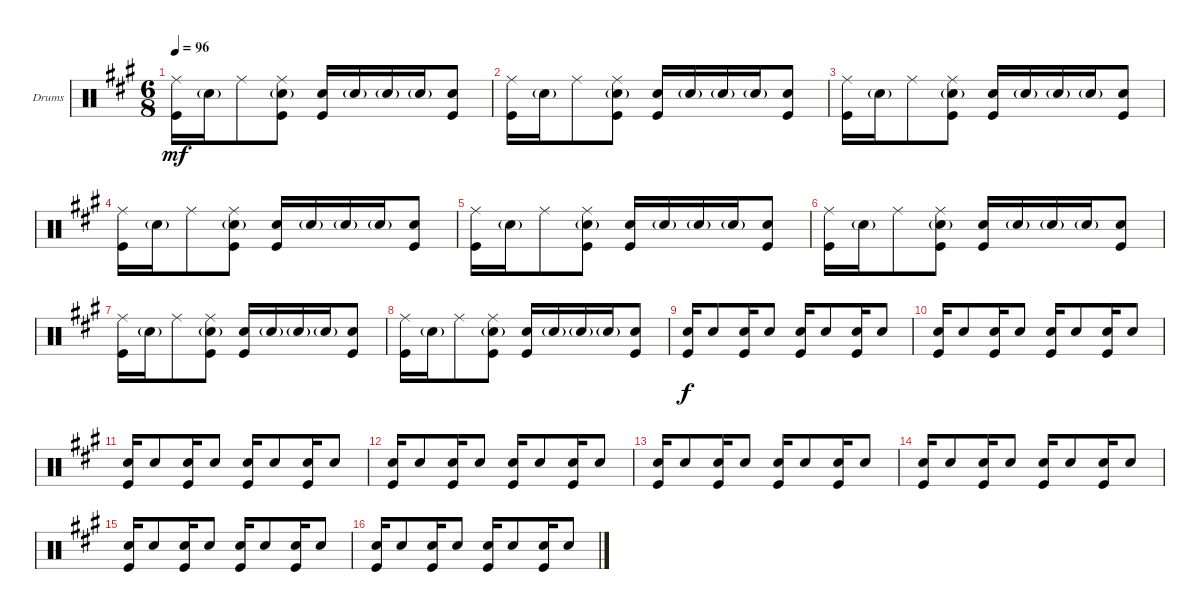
\bracketExtendMode groupsimilarinstruments
\firstSystemTrackNameOrientation horizontal
\otherSystemsTrackNameOrientation horizontal
\track ("Drumkit" "Drums") {instrument percussion}
\staff {score}
\articulation defaults
\ts (6 8)
\tempo 96
\clef neutral
\scale
0.333333
\ks a
("Ride (middle)" "Kick (hit)").16{dy mf} "Snare (hit) 2"{g}.16 "Ride (middle)".8 ("Snare (hit) 2"{g} "Ride (middle)" "Kick (hit)").8 ("Snare (hit) 2" "Kick (hit)").16 "Snare (hit) 2"{g}.16 "Snare (hit) 2"{g}.16 "Snare (hit) 2"{g}.16 ("Snare (hit) 2" "Kick (hit)").8 |
\scale
0.333333 ("Ride (middle)" "Kick (hit)").16 "Snare (hit) 2"{g}.16 "Ride (middle)".8 ("Snare (hit) 2"{g} "Ride (middle)" "Kick (hit)").8 ("Snare (hit) 2" "Kick (hit)").16 "Snare (hit) 2"{g}.16 "Snare (hit) 2"{g}.16 "Snare (hit) 2"{g}.16 ("Snare (hit) 2" "Kick (hit)").8 |
\scale
0.333333 ("Ride (middle)" "Kick (hit)").16 "Snare (hit) 2"{g}.16 "Ride (middle)".8 ("Snare (hit) 2"{g} "Ride (middle)" "Kick (hit)").8 ("Snare (hit) 2" "Kick (hit)").16 "Snare (hit) 2"{g}.16 "Snare (hit) 2"{g}.16 "Snare (hit) 2"{g}.16 ("Snare (hit) 2" "Kick (hit)").8 |
\scale
0.333333 ("Ride (middle)" "Kick (hit)").16 "Snare (hit) 2"{g}.16 "Ride (middle)".8 ("Snare (hit) 2"{g} "Ride (middle)" "Kick (hit)").8 ("Snare (hit) 2" "Kick (hit)").16 "Snare (hit) 2"{g}.16 "Snare (hit) 2"{g}.16 "Snare (hit) 2"{g}.16 ("Snare (hit) 2" "Kick (hit)").8 |
\scale
0.333333 ("Ride (middle)" "Kick (hit)").16 "Snare (hit) 2"{g}.16 "Ride (middle)".8 ("Snare (hit) 2"{g} "Ride (middle)" "Kick (hit)").8 ("Snare (hit) 2" "Kick (hit)").16 "Snare (hit) 2"{g}.16 "Snare (hit) 2"{g}.16 "Snare (hit) 2"{g}.16 ("Snare (hit) 2" "Kick (hit)").8 |
\scale
0.333333 ("Ride (middle)" "Kick (hit)").16 "Snare (hit) 2"{g}.16 "Ride (middle)".8 ("Snare (hit) 2"{g} "Ride (middle)" "Kick (hit)").8 ("Snare (hit) 2" "Kick (hit)").16 "Snare (hit) 2"{g}.16 "Snare (hit) 2"{g}.16 "Snare (hit) 2"{g}.16 ("Snare (hit) 2" "Kick (hit)").8 |
\scale
0.333333 ("Ride (middle)" "Kick (hit)").16 "Snare (hit) 2"{g}.16 "Ride (middle)".8 ("Snare (hit) 2"{g} "Ride (middle)" "Kick (hit)").8 ("Snare (hit) 2" "Kick (hit)").16 "Snare (hit) 2"{g}.16 "Snare (hit) 2"{g}.16 "Snare (hit) 2"{g}.16 ("Snare (hit) 2" "Kick (hit)").8 |
\scale
0.333333 ("Ride (middle)" "Kick (hit)").16 "Snare (hit) 2"{g}.16 "Ride (middle)".8 ("Snare (hit) 2"{g} "Ride (middle)" "Kick (hit)").8 ("Snare (hit) 2" "Kick (hit)").16 "Snare (hit) 2"{g}.16 "Snare (hit) 2"{g}.16 "Snare (hit) 2"{g}.16 ("Snare (hit) 2" "Kick (hit)").8 |
\scale
0.333333 ("Snare (hit) 2" "Kick (hit)").16{dy f} "Snare (hit) 2".8 ("Snare (hit) 2" "Kick (hit)").16 "Snare (hit) 2".8 ("Snare (hit) 2" "Kick (hit)").16 "Snare (hit) 2".8 ("Snare (hit) 2" "Kick (hit)").16 "Snare (hit) 2".8 |
\scale
0.333333 ("Snare (hit) 2" "Kick (hit)").16 "Snare (hit) 2".8 ("Snare (hit) 2" "Kick (hit)").16 "Snare (hit) 2".8 ("Snare (hit) 2" "Kick (hit)").16 "Snare (hit) 2".8 ("Snare (hit) 2" "Kick (hit)").16 "Snare (hit) 2".8 |
\scale
0.333333 ("Snare (hit) 2" "Kick (hit)").16 "Snare (hit) 2".8 ("Snare (hit) 2" "Kick (hit)").16 "Snare (hit) 2".8 ("Snare (hit) 2" "Kick (hit)").16 "Snare (hit) 2".8 ("Snare (hit) 2" "Kick (hit)").16 "Snare (hit) 2".8 |
\scale
0.333333 ("Snare (hit) 2" "Kick (hit)").16 "Snare (hit) 2".8 ("Snare (hit) 2" "Kick (hit)").16 "Snare (hit) 2".8 ("Snare (hit) 2" "Kick (hit)").16 "Snare (hit) 2".8 ("Snare (hit) 2" "Kick (hit)").16 "Snare (hit) 2".8 |
\scale
0.333333 ("Snare (hit) 2" "Kick (hit)").16 "Snare (hit) 2".8 ("Snare (hit) 2" "Kick (hit)").16 "Snare (hit) 2".8 ("Snare (hit) 2" "Kick (hit)").16 "Snare (hit) 2".8 ("Snare (hit) 2" "Kick (hit)").16 "Snare (hit) 2".8 |
\scale
0.333333 ("Snare (hit) 2" "Kick (hit)").16 "Snare (hit) 2".8 ("Snare (hit) 2" "Kick (hit)").16 "Snare (hit) 2".8 ("Snare (hit) 2" "Kick (hit)").16 "Snare (hit) 2".8 ("Snare (hit) 2" "Kick (hit)").16 "Snare (hit) 2".8 |
\scale
0.333333 ("Snare (hit) 2" "Kick (hit)").16 "Snare (hit) 2".8 ("Snare (hit) 2" "Kick (hit)").16 "Snare (hit) 2".8 ("Snare (hit) 2" "Kick (hit)").16 "Snare (hit) 2".8 ("Snare (hit) 2" "Kick (hit)").16 "Snare (hit) 2".8 |
\scale
0.311475 ("Snare (hit) 2" "Kick (hit)").16 "Snare (hit) 2".8 ("Snare (hit) 2" "Kick (hit)").16 "Snare (hit) 2".8 ("Snare (hit) 2" "Kick (hit)").16 "Snare (hit) 2".8 ("Snare (hit) 2" "Kick (hit)").16 "Snare (hit) 2".8
